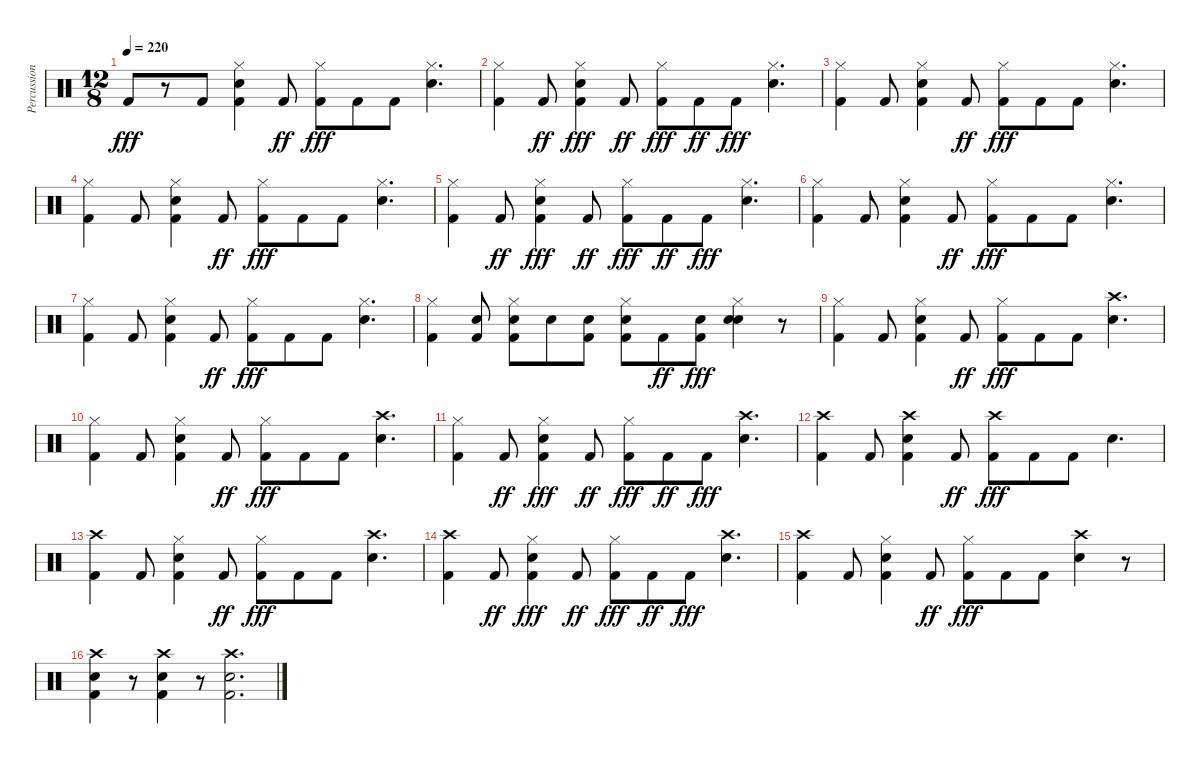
\track ("Percussion" "Percussion") {instrument percussion}
\staff {score}
\articulation defaults
\ts (12 8)
\tempo 220
\clef neutral
\ks c "Kick (hit) 2".8{dy fff}
r.8 "Kick (hit) 2".8 ("Kick (hit) 2" "Snare (hit) 2" "Hi-Hat (closed)").4 "Kick (hit) 2".8{dy ff} ("Kick (hit) 2" "Hi-Hat (closed)").8{dy fff} "Kick (hit) 2".8 "Kick (hit) 2".8 ("Snare (hit) 2" "Hi-Hat (closed)").4{d} |
("Kick (hit) 2" "Hi-Hat (closed)").4 "Kick (hit) 2".8{dy ff} ("Kick (hit) 2" "Snare (hit) 2" "Hi-Hat (closed)").4{dy fff} "Kick (hit) 2".8{dy ff} ("Kick (hit) 2" "Hi-Hat (closed)").8{dy fff} "Kick (hit) 2".8{dy ff} "Kick (hit) 2".8{dy fff} ("Snare (hit) 2" "Hi-Hat (closed)").4{d} |
("Kick (hit) 2" "Hi-Hat (closed)").4 "Kick (hit) 2".8 ("Kick (hit) 2" "Snare (hit) 2" "Hi-Hat (closed)").4 "Kick (hit) 2".8{dy ff} ("Kick (hit) 2" "Hi-Hat (closed)").8{dy fff} "Kick (hit) 2".8 "Kick (hit) 2".8 ("Snare (hit) 2" "Hi-Hat (closed)").4{d} |
("Kick (hit) 2" "Hi-Hat (closed)").4 "Kick (hit) 2".8 ("Kick (hit) 2" "Snare (hit) 2" "Hi-Hat (closed)").4 "Kick (hit) 2".8{dy ff} ("Kick (hit) 2" "Hi-Hat (closed)").8{dy fff} "Kick (hit) 2".8 "Kick (hit) 2".8 ("Snare (hit) 2" "Hi-Hat (closed)").4{d} |
("Kick (hit) 2" "Hi-Hat (closed)").4 "Kick (hit) 2".8{dy ff} ("Kick (hit) 2" "Snare (hit) 2" "Hi-Hat (closed)").4{dy fff} "Kick (hit) 2".8{dy ff} ("Kick (hit) 2" "Hi-Hat (closed)").8{dy fff} "Kick (hit) 2".8{dy ff} "Kick (hit) 2".8{dy fff} ("Snare (hit) 2" "Hi-Hat (closed)").4{d} |
("Kick (hit) 2" "Hi-Hat (closed)").4 "Kick (hit) 2".8 ("Kick (hit) 2" "Snare (hit) 2" "Hi-Hat (closed)").4 "Kick (hit) 2".8{dy ff} ("Kick (hit) 2" "Hi-Hat (closed)").8{dy fff} "Kick (hit) 2".8 "Kick (hit) 2".8 ("Snare (hit) 2" "Hi-Hat (closed)").4{d} |
("Kick (hit) 2" "Hi-Hat (closed)").4 "Kick (hit) 2".8 ("Kick (hit) 2" "Snare (hit) 2" "Hi-Hat (closed)").4 "Kick (hit) 2".8{dy ff} ("Kick (hit) 2" "Hi-Hat (closed)").8{dy fff} "Kick (hit) 2".8 "Kick (hit) 2".8 ("Snare (hit) 2" "Hi-Hat (closed)").4{d} |
("Kick (hit) 2" "Hi-Hat (closed)").4 ("Kick (hit) 2" "Snare (hit) 2").8 ("Kick (hit) 2" "Snare (hit) 2" "Hi-Hat (closed)").8 "Snare (hit) 2".8 ("Kick (hit) 2" "Snare (hit) 2").8 ("Kick (hit) 2" "Snare (hit) 2" "Hi-Hat (closed)").8 "Kick (hit) 2".8{dy ff} ("Kick (hit) 2" "Snare (hit) 2").8{dy fff} ("Snare (hit) 2" "Snare (hit) 2" "Hi-Hat (closed)").4 r.8 |
("Kick (hit) 2" "Hi-Hat (closed)").4 "Kick (hit) 2".8 ("Kick (hit) 2" "Snare (hit) 2" "Hi-Hat (closed)").4 "Kick (hit) 2".8{dy ff} ("Kick (hit) 2" "Hi-Hat (closed)").8{dy fff} "Kick (hit) 2".8 "Kick (hit) 2".8 ("Snare (hit) 2" "Crash high (hit)").4{d} |
("Kick (hit) 2" "Hi-Hat (closed)").4 "Kick (hit) 2".8 ("Kick (hit) 2" "Snare (hit) 2" "Hi-Hat (closed)").4 "Kick (hit) 2".8{dy ff} ("Kick (hit) 2" "Hi-Hat (closed)").8{dy fff} "Kick (hit) 2".8 "Kick (hit) 2".8 ("Snare (hit) 2" "Crash high (hit)").4{d} |
("Kick (hit) 2" "Hi-Hat (closed)").4 "Kick (hit) 2".8{dy ff} ("Kick (hit) 2" "Snare (hit) 2" "Hi-Hat (closed)").4{dy fff} "Kick (hit) 2".8{dy ff} ("Kick (hit) 2" "Hi-Hat (closed)").8{dy fff} "Kick (hit) 2".8{dy ff} "Kick (hit) 2".8{dy fff} ("Snare (hit) 2" "Crash high (hit)").4{d} |
("Kick (hit) 2" "Crash high (hit)").4 "Kick (hit) 2".8 ("Kick (hit) 2" "Snare (hit) 2" "Crash high (hit)").4 "Kick (hit) 2".8{dy ff} ("Kick (hit) 2" "Crash high (hit)").8{dy fff} "Kick (hit) 2".8 "Kick (hit) 2".8 "Snare (hit) 2".4{d} |
("Kick (hit) 2" "Crash high (hit)").4 "Kick (hit) 2".8 ("Kick (hit) 2" "Snare (hit) 2" "Hi-Hat (closed)").4 "Kick (hit) 2".8{dy ff} ("Kick (hit) 2" "Hi-Hat (closed)").8{dy fff} "Kick (hit) 2".8 "Kick (hit) 2".8 ("Snare (hit) 2" "Crash high (hit)").4{d} |
("Kick (hit) 2" "Crash high (hit)").4 "Kick (hit) 2".8{dy ff} ("Kick (hit) 2" "Snare (hit) 2" "Hi-Hat (closed)").4{dy fff} "Kick (hit) 2".8{dy ff} ("Kick (hit) 2" "Hi-Hat (closed)").8{dy fff} "Kick (hit) 2".8{dy ff} "Kick (hit) 2".8{dy fff} ("Snare (hit) 2" "Crash high (hit)").4{d} |
("Kick (hit) 2" "Crash high (hit)").4 "Kick (hit) 2".8 ("Kick (hit) 2" "Snare (hit) 2" "Hi-Hat (closed)").4 "Kick (hit) 2".8{dy ff} ("Kick (hit) 2" "Hi-Hat (closed)").8{dy fff} "Kick (hit) 2".8 "Kick (hit) 2".8 ("Snare (hit) 2" "Crash high (hit)").4 r.8 |
("Kick (hit) 2" "Snare (hit) 2" "Crash high (hit)").4 r.8 ("Kick (hit) 2" "Snare (hit) 2" "Crash high (hit)").4 r.8 ("Kick (hit) 2" "Snare (hit) 2" "Crash high (hit)").2{d}
